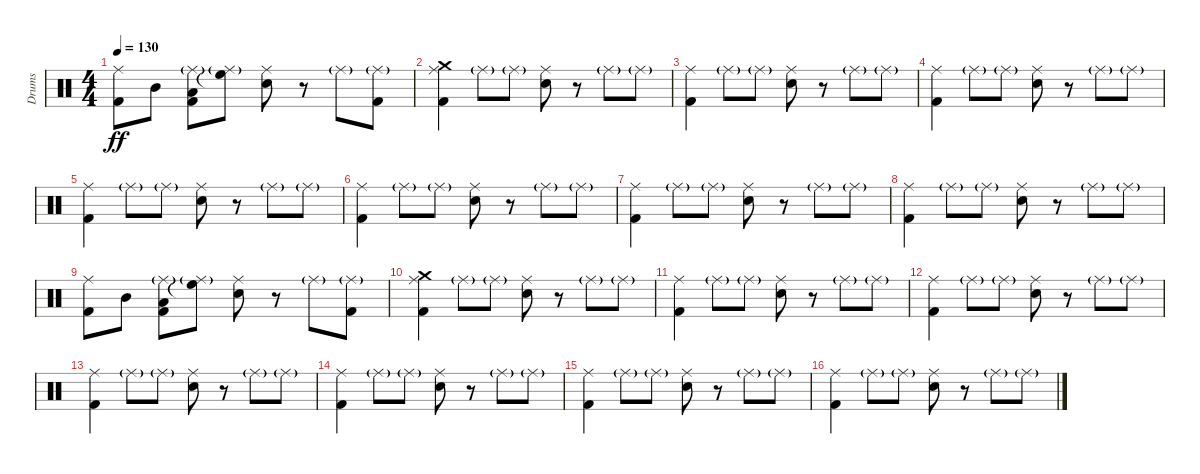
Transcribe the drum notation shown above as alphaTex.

\track ("Drums" "Drums") {instrument percussion}
\staff {score}
\articulation defaults
\ts (4 4)
\tempo 130
\clef neutral
\ks c
("Ride (middle)" "Kick (hit) 2").8{dy ff} "Mid Tom (hit)".8 ("Ride (middle)"{g} "Low Tom (hit)" "Kick (hit) 2").8 ("Ride (middle)"{g} "High Floor Tom (hit)"{t}).8 ("Ride (middle)" "Electric Snare (hit)").8 r.8 "Ride (middle)"{g}.8 ("Ride (middle)"{g} "Kick (hit) 2").8 |
("Crash medium (hit)" "Ride (middle)" "Kick (hit) 2").4 "Ride (middle)"{g}.8 "Ride (middle)"{g}.8 ("Ride (middle)" "Electric Snare (hit)").8 r.8 "Ride (middle)"{g}.8 "Ride (middle)"{g}.8 |
("Ride (middle)" "Kick (hit) 2").4 "Ride (middle)"{g}.8 "Ride (middle)"{g}.8 ("Ride (middle)" "Electric Snare (hit)").8 r.8 "Ride (middle)"{g}.8 "Ride (middle)"{g}.8 |
("Ride (middle)" "Kick (hit) 2").4 "Ride (middle)"{g}.8 "Ride (middle)"{g}.8 ("Ride (middle)" "Electric Snare (hit)").8 r.8 "Ride (middle)"{g}.8 "Ride (middle)"{g}.8 |
("Ride (middle)" "Kick (hit) 2").4 "Ride (middle)"{g}.8 "Ride (middle)"{g}.8 ("Ride (middle)" "Electric Snare (hit)").8 r.8 "Ride (middle)"{g}.8 "Ride (middle)"{g}.8 |
("Ride (middle)" "Kick (hit) 2").4 "Ride (middle)"{g}.8 "Ride (middle)"{g}.8 ("Ride (middle)" "Electric Snare (hit)").8 r.8 "Ride (middle)"{g}.8 "Ride (middle)"{g}.8 |
("Ride (middle)" "Kick (hit) 2").4 "Ride (middle)"{g}.8 "Ride (middle)"{g}.8 ("Ride (middle)" "Electric Snare (hit)").8 r.8 "Ride (middle)"{g}.8 "Ride (middle)"{g}.8 |
("Ride (middle)" "Kick (hit) 2").4 "Ride (middle)"{g}.8 "Ride (middle)"{g}.8 ("Ride (middle)" "Electric Snare (hit)").8 r.8 "Ride (middle)"{g}.8 "Ride (middle)"{g}.8 |
("Ride (middle)" "Kick (hit) 2").8 "Mid Tom (hit)".8 ("Ride (middle)"{g} "Low Tom (hit)" "Kick (hit) 2").8 ("Ride (middle)"{g} "High Floor Tom (hit)"{t}).8 ("Ride (middle)" "Electric Snare (hit)").8 r.8 "Ride (middle)"{g}.8 ("Ride (middle)"{g} "Kick (hit) 2").8 |
("Crash medium (hit)" "Ride (middle)" "Kick (hit) 2").4 "Ride (middle)"{g}.8 "Ride (middle)"{g}.8 ("Ride (middle)" "Electric Snare (hit)").8 r.8 "Ride (middle)"{g}.8 "Ride (middle)"{g}.8 |
("Ride (middle)" "Kick (hit) 2").4 "Ride (middle)"{g}.8 "Ride (middle)"{g}.8 ("Ride (middle)" "Electric Snare (hit)").8 r.8 "Ride (middle)"{g}.8 "Ride (middle)"{g}.8 |
("Ride (middle)" "Kick (hit) 2").4 "Ride (middle)"{g}.8 "Ride (middle)"{g}.8 ("Ride (middle)" "Electric Snare (hit)").8 r.8 "Ride (middle)"{g}.8 "Ride (middle)"{g}.8 |
("Ride (middle)" "Kick (hit) 2").4 "Ride (middle)"{g}.8 "Ride (middle)"{g}.8 ("Ride (middle)" "Electric Snare (hit)").8 r.8 "Ride (middle)"{g}.8 "Ride (middle)"{g}.8 |
("Ride (middle)" "Kick (hit) 2").4 "Ride (middle)"{g}.8 "Ride (middle)"{g}.8 ("Ride (middle)" "Electric Snare (hit)").8 r.8 "Ride (middle)"{g}.8 "Ride (middle)"{g}.8 |
("Ride (middle)" "Kick (hit) 2").4 "Ride (middle)"{g}.8 "Ride (middle)"{g}.8 ("Ride (middle)" "Electric Snare (hit)").8 r.8 "Ride (middle)"{g}.8 "Ride (middle)"{g}.8 |
("Ride (middle)" "Kick (hit) 2").4 "Ride (middle)"{g}.8 "Ride (middle)"{g}.8 ("Ride (middle)" "Electric Snare (hit)").8 r.8 "Ride (middle)"{g}.8 "Ride (middle)"{g}.8
